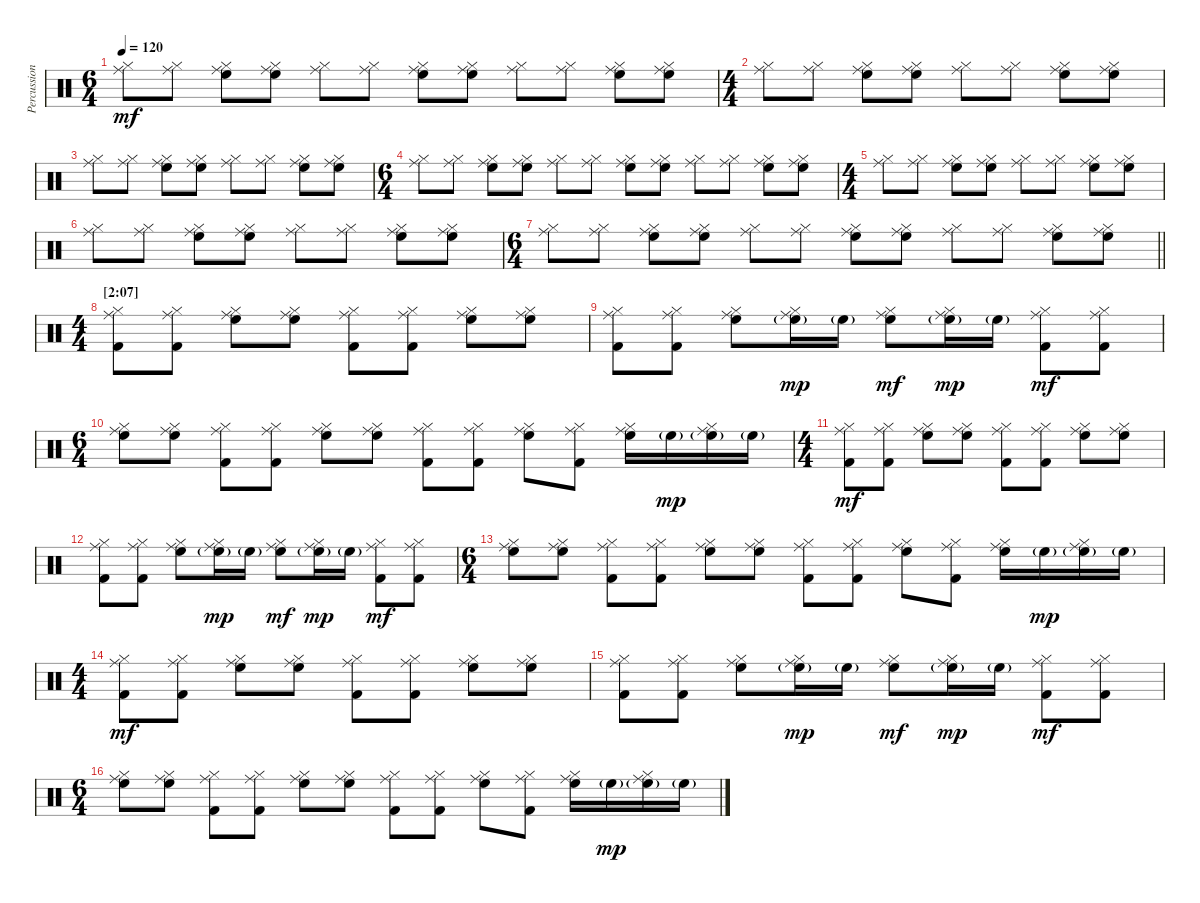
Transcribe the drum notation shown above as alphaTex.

\track ("Percussion" "Percussion") {instrument percussion}
\staff {score}
\articulation defaults
\ts (6 4)
\tempo 120
\clef neutral
\ks c
("Ride (middle)" "Hi-Hat (closed)").8{dy mf} ("Ride (middle)" "Hi-Hat (closed)").8 ("Ride (middle)" "Hi-Hat (closed)" "High Floor Tom (hit)").8 ("Ride (middle)" "Hi-Hat (closed)" "High Floor Tom (hit)").8 ("Ride (middle)" "Hi-Hat (closed)").8 ("Ride (middle)" "Hi-Hat (closed)").8 ("Ride (middle)" "Hi-Hat (closed)" "High Floor Tom (hit)").8 ("Ride (middle)" "Hi-Hat (closed)" "High Floor Tom (hit)").8 ("Ride (middle)" "Hi-Hat (closed)").8 ("Ride (middle)" "Hi-Hat (closed)").8 ("Ride (middle)" "Hi-Hat (closed)" "High Floor Tom (hit)").8 ("Ride (middle)" "Hi-Hat (closed)" "High Floor Tom (hit)").8 |
\ts (4 4)
("Ride (middle)" "Hi-Hat (closed)").8 ("Ride (middle)" "Hi-Hat (closed)").8 ("Ride (middle)" "Hi-Hat (closed)" "High Floor Tom (hit)").8 ("Ride (middle)" "Hi-Hat (closed)" "High Floor Tom (hit)").8 ("Ride (middle)" "Hi-Hat (closed)").8 ("Ride (middle)" "Hi-Hat (closed)").8 ("Ride (middle)" "Hi-Hat (closed)" "High Floor Tom (hit)").8 ("Ride (middle)" "Hi-Hat (closed)" "High Floor Tom (hit)").8 |
("Ride (middle)" "Hi-Hat (closed)").8 ("Ride (middle)" "Hi-Hat (closed)").8 ("Ride (middle)" "Hi-Hat (closed)" "High Floor Tom (hit)").8 ("Ride (middle)" "Hi-Hat (closed)" "High Floor Tom (hit)").8 ("Ride (middle)" "Hi-Hat (closed)").8 ("Ride (middle)" "Hi-Hat (closed)").8 ("Ride (middle)" "Hi-Hat (closed)" "High Floor Tom (hit)").8 ("Ride (middle)" "Hi-Hat (closed)" "High Floor Tom (hit)").8 |
\ts (6 4)
("Ride (middle)" "Hi-Hat (closed)").8 ("Ride (middle)" "Hi-Hat (closed)").8 ("Ride (middle)" "Hi-Hat (closed)" "High Floor Tom (hit)").8 ("Ride (middle)" "Hi-Hat (closed)" "High Floor Tom (hit)").8 ("Ride (middle)" "Hi-Hat (closed)").8 ("Ride (middle)" "Hi-Hat (closed)").8 ("Ride (middle)" "Hi-Hat (closed)" "High Floor Tom (hit)").8 ("Ride (middle)" "Hi-Hat (closed)" "High Floor Tom (hit)").8 ("Ride (middle)" "Hi-Hat (closed)").8 ("Ride (middle)" "Hi-Hat (closed)").8 ("Ride (middle)" "Hi-Hat (closed)" "High Floor Tom (hit)").8 ("Ride (middle)" "Hi-Hat (closed)" "High Floor Tom (hit)").8 |
\ts (4 4)
("Ride (middle)" "Hi-Hat (closed)").8 ("Ride (middle)" "Hi-Hat (closed)").8 ("Ride (middle)" "Hi-Hat (closed)" "High Floor Tom (hit)").8 ("Ride (middle)" "Hi-Hat (closed)" "High Floor Tom (hit)").8 ("Ride (middle)" "Hi-Hat (closed)").8 ("Ride (middle)" "Hi-Hat (closed)").8 ("Ride (middle)" "Hi-Hat (closed)" "High Floor Tom (hit)").8 ("Ride (middle)" "Hi-Hat (closed)" "High Floor Tom (hit)").8 |
("Ride (middle)" "Hi-Hat (closed)").8 ("Ride (middle)" "Hi-Hat (closed)").8 ("Ride (middle)" "Hi-Hat (closed)" "High Floor Tom (hit)").8 ("Ride (middle)" "Hi-Hat (closed)" "High Floor Tom (hit)").8 ("Ride (middle)" "Hi-Hat (closed)").8 ("Ride (middle)" "Hi-Hat (closed)").8 ("Ride (middle)" "Hi-Hat (closed)" "High Floor Tom (hit)").8 ("Ride (middle)" "Hi-Hat (closed)" "High Floor Tom (hit)").8 |
\ts (6 4)
\barLineRight lightlight
("Ride (middle)" "Hi-Hat (closed)").8 ("Ride (middle)" "Hi-Hat (closed)").8 ("Ride (middle)" "Hi-Hat (closed)" "High Floor Tom (hit)").8 ("Ride (middle)" "Hi-Hat (closed)" "High Floor Tom (hit)").8 ("Ride (middle)" "Hi-Hat (closed)").8 ("Ride (middle)" "Hi-Hat (closed)").8 ("Ride (middle)" "Hi-Hat (closed)" "High Floor Tom (hit)").8 ("Ride (middle)" "Hi-Hat (closed)" "High Floor Tom (hit)").8 ("Ride (middle)" "Hi-Hat (closed)").8 ("Ride (middle)" "Hi-Hat (closed)").8 ("Ride (middle)" "Hi-Hat (closed)" "High Floor Tom (hit)").8 ("Ride (middle)" "Hi-Hat (closed)" "High Floor Tom (hit)").8 |
\ts (4 4)
\section ("" "[2:07]")
("Ride (middle)" "Hi-Hat (closed)" "Kick (hit) 2").8 ("Ride (middle)" "Hi-Hat (closed)" "Kick (hit) 2").8 ("Ride (middle)" "Hi-Hat (closed)" "High Floor Tom (hit)").8 ("Ride (middle)" "Hi-Hat (closed)" "High Floor Tom (hit)").8 ("Ride (middle)" "Hi-Hat (closed)" "Kick (hit) 2").8 ("Ride (middle)" "Hi-Hat (closed)" "Kick (hit) 2").8 ("Ride (middle)" "Hi-Hat (closed)" "High Floor Tom (hit)").8 ("Ride (middle)" "Hi-Hat (closed)" "High Floor Tom (hit)").8 |
("Ride (middle)" "Hi-Hat (closed)" "Kick (hit) 2").8 ("Ride (middle)" "Hi-Hat (closed)" "Kick (hit) 2").8 ("Ride (middle)" "Hi-Hat (closed)" "High Floor Tom (hit)").8 ("Ride (middle)" "Hi-Hat (closed)" "High Floor Tom (hit)"{g}).16{dy mp} "High Floor Tom (hit)"{g}.16 ("Ride (middle)" "Hi-Hat (closed)" "High Floor Tom (hit)").8{dy mf} ("Ride (middle)" "Hi-Hat (closed)" "High Floor Tom (hit)"{g}).16{dy mp} "High Floor Tom (hit)"{g}.16 ("Ride (middle)" "Hi-Hat (closed)" "Kick (hit) 2").8{dy mf} ("Ride (middle)" "Hi-Hat (closed)" "Kick (hit) 2").8 |
\ts (6 4)
("Ride (middle)" "Hi-Hat (closed)" "High Floor Tom (hit)").8 ("Ride (middle)" "Hi-Hat (closed)" "High Floor Tom (hit)").8 ("Ride (middle)" "Hi-Hat (closed)" "Kick (hit) 2").8 ("Ride (middle)" "Hi-Hat (closed)" "Kick (hit) 2").8 ("Ride (middle)" "Hi-Hat (closed)" "High Floor Tom (hit)").8 ("Ride (middle)" "Hi-Hat (closed)" "High Floor Tom (hit)").8 ("Ride (middle)" "Hi-Hat (closed)" "Kick (hit) 2").8 ("Ride (middle)" "Hi-Hat (closed)" "Kick (hit) 2").8 ("Ride (middle)" "Hi-Hat (closed)" "High Floor Tom (hit)").8 ("Ride (middle)" "Hi-Hat (closed)" "Kick (hit) 2").8 ("Ride (middle)" "Hi-Hat (closed)" "High Floor Tom (hit)").16 "High Floor Tom (hit)"{g}.16{dy mp} ("Ride (middle)" "Hi-Hat (closed)" "High Floor Tom (hit)"{g}).16 "High Floor Tom (hit)"{g}.16 |
\ts (4 4)
("Ride (middle)" "Hi-Hat (closed)" "Kick (hit) 2").8{dy mf} ("Ride (middle)" "Hi-Hat (closed)" "Kick (hit) 2").8 ("Ride (middle)" "Hi-Hat (closed)" "High Floor Tom (hit)").8 ("Ride (middle)" "Hi-Hat (closed)" "High Floor Tom (hit)").8 ("Ride (middle)" "Hi-Hat (closed)" "Kick (hit) 2").8 ("Ride (middle)" "Hi-Hat (closed)" "Kick (hit) 2").8 ("Ride (middle)" "Hi-Hat (closed)" "High Floor Tom (hit)").8 ("Ride (middle)" "Hi-Hat (closed)" "High Floor Tom (hit)").8 |
("Ride (middle)" "Hi-Hat (closed)" "Kick (hit) 2").8 ("Ride (middle)" "Hi-Hat (closed)" "Kick (hit) 2").8 ("Ride (middle)" "Hi-Hat (closed)" "High Floor Tom (hit)").8 ("Ride (middle)" "Hi-Hat (closed)" "High Floor Tom (hit)"{g}).16{dy mp} "High Floor Tom (hit)"{g}.16 ("Ride (middle)" "Hi-Hat (closed)" "High Floor Tom (hit)").8{dy mf} ("Ride (middle)" "Hi-Hat (closed)" "High Floor Tom (hit)"{g}).16{dy mp} "High Floor Tom (hit)"{g}.16 ("Ride (middle)" "Hi-Hat (closed)" "Kick (hit) 2").8{dy mf} ("Ride (middle)" "Hi-Hat (closed)" "Kick (hit) 2").8 |
\ts (6 4)
("Ride (middle)" "Hi-Hat (closed)" "High Floor Tom (hit)").8 ("Ride (middle)" "Hi-Hat (closed)" "High Floor Tom (hit)").8 ("Ride (middle)" "Hi-Hat (closed)" "Kick (hit) 2").8 ("Ride (middle)" "Hi-Hat (closed)" "Kick (hit) 2").8 ("Ride (middle)" "Hi-Hat (closed)" "High Floor Tom (hit)").8 ("Ride (middle)" "Hi-Hat (closed)" "High Floor Tom (hit)").8 ("Ride (middle)" "Hi-Hat (closed)" "Kick (hit) 2").8 ("Ride (middle)" "Hi-Hat (closed)" "Kick (hit) 2").8 ("Ride (middle)" "Hi-Hat (closed)" "High Floor Tom (hit)").8 ("Ride (middle)" "Hi-Hat (closed)" "Kick (hit) 2").8 ("Ride (middle)" "Hi-Hat (closed)" "High Floor Tom (hit)").16 "High Floor Tom (hit)"{g}.16{dy mp} ("Ride (middle)" "Hi-Hat (closed)" "High Floor Tom (hit)"{g}).16 "High Floor Tom (hit)"{g}.16 |
\ts (4 4)
("Ride (middle)" "Hi-Hat (closed)" "Kick (hit) 2").8{dy mf} ("Ride (middle)" "Hi-Hat (closed)" "Kick (hit) 2").8 ("Ride (middle)" "Hi-Hat (closed)" "High Floor Tom (hit)").8 ("Ride (middle)" "Hi-Hat (closed)" "High Floor Tom (hit)").8 ("Ride (middle)" "Hi-Hat (closed)" "Kick (hit) 2").8 ("Ride (middle)" "Hi-Hat (closed)" "Kick (hit) 2").8 ("Ride (middle)" "Hi-Hat (closed)" "High Floor Tom (hit)").8 ("Ride (middle)" "Hi-Hat (closed)" "High Floor Tom (hit)").8 |
("Ride (middle)" "Hi-Hat (closed)" "Kick (hit) 2").8 ("Ride (middle)" "Hi-Hat (closed)" "Kick (hit) 2").8 ("Ride (middle)" "Hi-Hat (closed)" "High Floor Tom (hit)").8 ("Ride (middle)" "Hi-Hat (closed)" "High Floor Tom (hit)"{g}).16{dy mp} "High Floor Tom (hit)"{g}.16 ("Ride (middle)" "Hi-Hat (closed)" "High Floor Tom (hit)").8{dy mf} ("Ride (middle)" "Hi-Hat (closed)" "High Floor Tom (hit)"{g}).16{dy mp} "High Floor Tom (hit)"{g}.16 ("Ride (middle)" "Hi-Hat (closed)" "Kick (hit) 2").8{dy mf} ("Ride (middle)" "Hi-Hat (closed)" "Kick (hit) 2").8 |
\ts (6 4)
("Ride (middle)" "Hi-Hat (closed)" "High Floor Tom (hit)").8 ("Ride (middle)" "Hi-Hat (closed)" "High Floor Tom (hit)").8 ("Ride (middle)" "Hi-Hat (closed)" "Kick (hit) 2").8 ("Ride (middle)" "Hi-Hat (closed)" "Kick (hit) 2").8 ("Ride (middle)" "Hi-Hat (closed)" "High Floor Tom (hit)").8 ("Ride (middle)" "Hi-Hat (closed)" "High Floor Tom (hit)").8 ("Ride (middle)" "Hi-Hat (closed)" "Kick (hit) 2").8 ("Ride (middle)" "Hi-Hat (closed)" "Kick (hit) 2").8 ("Ride (middle)" "Hi-Hat (closed)" "High Floor Tom (hit)").8 ("Ride (middle)" "Hi-Hat (closed)" "Kick (hit) 2").8 ("Ride (middle)" "Hi-Hat (closed)" "High Floor Tom (hit)").16 "High Floor Tom (hit)"{g}.16{dy mp} ("Ride (middle)" "Hi-Hat (closed)" "High Floor Tom (hit)"{g}).16 "High Floor Tom (hit)"{g}.16
